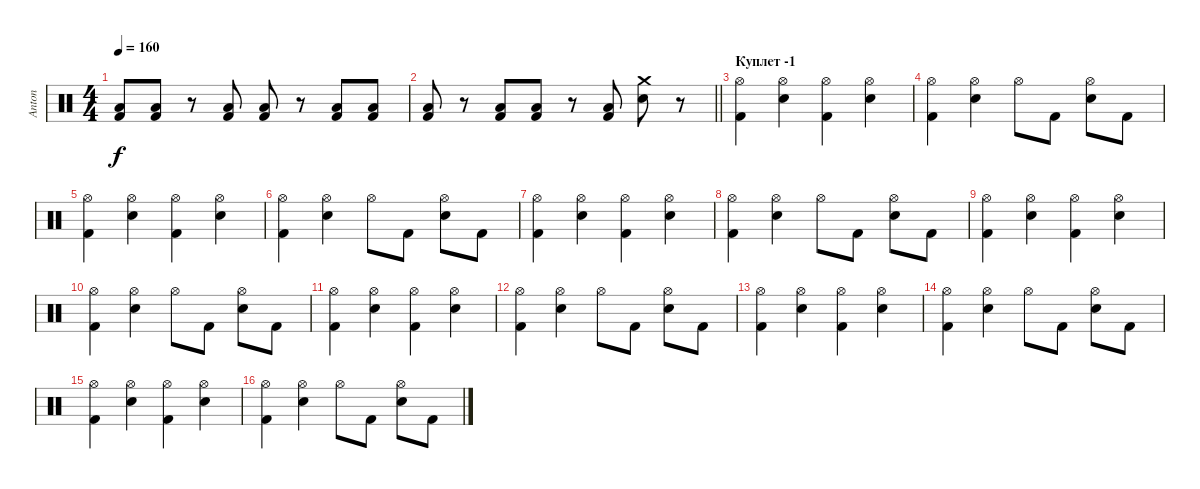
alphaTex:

\track ("Anton" "Anton") {instrument percussion}
\staff {score}
\articulation defaults
\ts (4 4)
\tempo 160
\clef neutral
\ks c
("Kick (hit) 2" "Low Floor Tom (hit)").8{dy f} ("Kick (hit) 2" "Low Floor Tom (hit)").8 r.8 ("Kick (hit) 2" "Low Floor Tom (hit)").8 ("Kick (hit) 2" "Low Floor Tom (hit)").8 r.8 ("Kick (hit) 2" "Low Floor Tom (hit)").8 ("Kick (hit) 2" "Low Floor Tom (hit)").8 |
\barLineRight lightlight
("Kick (hit) 2" "Low Floor Tom (hit)").8 r.8 ("Kick (hit) 2" "Low Floor Tom (hit)").8 ("Kick (hit) 2" "Low Floor Tom (hit)").8 r.8 ("Kick (hit) 2" "Low Floor Tom (hit)").8 ("Electric Snare (hit)" "Crash medium (hit)").8 r.8 |
\section ("" "Куплет -1")
("Kick (hit) 2" "Hi-Hat (open)").4 ("Electric Snare (hit)" "Hi-Hat (open)").4 ("Kick (hit) 2" "Hi-Hat (open)").4 ("Electric Snare (hit)" "Hi-Hat (open)").4 |
("Kick (hit) 2" "Hi-Hat (open)").4 ("Electric Snare (hit)" "Hi-Hat (open)").4 "Hi-Hat (open)".8 "Kick (hit) 2".8 ("Electric Snare (hit)" "Hi-Hat (open)").8 "Kick (hit) 2".8 |
("Kick (hit) 2" "Hi-Hat (open)").4 ("Electric Snare (hit)" "Hi-Hat (open)").4 ("Kick (hit) 2" "Hi-Hat (open)").4 ("Electric Snare (hit)" "Hi-Hat (open)").4 |
("Kick (hit) 2" "Hi-Hat (open)").4 ("Electric Snare (hit)" "Hi-Hat (open)").4 "Hi-Hat (open)".8 "Kick (hit) 2".8 ("Electric Snare (hit)" "Hi-Hat (open)").8 "Kick (hit) 2".8 |
("Kick (hit) 2" "Hi-Hat (open)").4 ("Electric Snare (hit)" "Hi-Hat (open)").4 ("Kick (hit) 2" "Hi-Hat (open)").4 ("Electric Snare (hit)" "Hi-Hat (open)").4 |
("Kick (hit) 2" "Hi-Hat (open)").4 ("Electric Snare (hit)" "Hi-Hat (open)").4 "Hi-Hat (open)".8 "Kick (hit) 2".8 ("Electric Snare (hit)" "Hi-Hat (open)").8 "Kick (hit) 2".8 |
("Kick (hit) 2" "Hi-Hat (open)").4 ("Electric Snare (hit)" "Hi-Hat (open)").4 ("Kick (hit) 2" "Hi-Hat (open)").4 ("Electric Snare (hit)" "Hi-Hat (open)").4 |
("Kick (hit) 2" "Hi-Hat (open)").4 ("Electric Snare (hit)" "Hi-Hat (open)").4 "Hi-Hat (open)".8 "Kick (hit) 2".8 ("Electric Snare (hit)" "Hi-Hat (open)").8 "Kick (hit) 2".8 |
("Kick (hit) 2" "Hi-Hat (open)").4 ("Electric Snare (hit)" "Hi-Hat (open)").4 ("Kick (hit) 2" "Hi-Hat (open)").4 ("Electric Snare (hit)" "Hi-Hat (open)").4 |
("Kick (hit) 2" "Hi-Hat (open)").4 ("Electric Snare (hit)" "Hi-Hat (open)").4 "Hi-Hat (open)".8 "Kick (hit) 2".8 ("Electric Snare (hit)" "Hi-Hat (open)").8 "Kick (hit) 2".8 |
("Kick (hit) 2" "Hi-Hat (open)").4 ("Electric Snare (hit)" "Hi-Hat (open)").4 ("Kick (hit) 2" "Hi-Hat (open)").4 ("Electric Snare (hit)" "Hi-Hat (open)").4 |
("Kick (hit) 2" "Hi-Hat (open)").4 ("Electric Snare (hit)" "Hi-Hat (open)").4 "Hi-Hat (open)".8 "Kick (hit) 2".8 ("Electric Snare (hit)" "Hi-Hat (open)").8 "Kick (hit) 2".8 |
("Kick (hit) 2" "Hi-Hat (open)").4 ("Electric Snare (hit)" "Hi-Hat (open)").4 ("Kick (hit) 2" "Hi-Hat (open)").4 ("Electric Snare (hit)" "Hi-Hat (open)").4 |
("Kick (hit) 2" "Hi-Hat (open)").4 ("Electric Snare (hit)" "Hi-Hat (open)").4 "Hi-Hat (open)".8 "Kick (hit) 2".8 ("Electric Snare (hit)" "Hi-Hat (open)").8 "Kick (hit) 2".8
